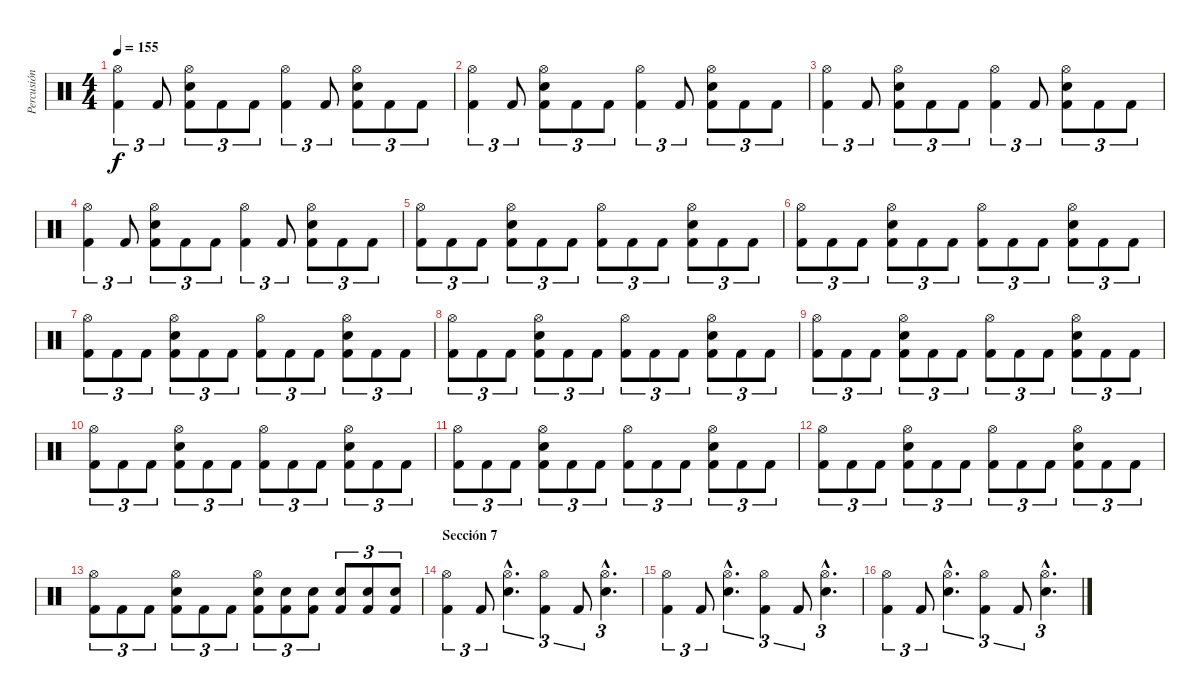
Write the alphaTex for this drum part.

\track ("Percusión" "Percusión") {instrument percussion}
\staff {score}
\articulation defaults
\ts (4 4)
\tempo 155
\clef neutral
\ks c
("Hi-Hat (open)" "Kick (hit) 2").4{tu (3 2) dy f} "Kick (hit) 2".8{tu (3 2)} ("Hi-Hat (open)" "Electric Snare (hit)" "Kick (hit) 2").8{tu (3 2)} "Kick (hit) 2".8{tu (3 2)} "Kick (hit) 2".8{tu (3 2)} ("Hi-Hat (open)" "Kick (hit) 2").4{tu (3 2)} "Kick (hit) 2".8{tu (3 2)} ("Hi-Hat (open)" "Electric Snare (hit)" "Kick (hit) 2").8{tu (3 2)} "Kick (hit) 2".8{tu (3 2)} "Kick (hit) 2".8{tu (3 2)} |
("Hi-Hat (open)" "Kick (hit) 2").4{tu (3 2)} "Kick (hit) 2".8{tu (3 2)} ("Hi-Hat (open)" "Electric Snare (hit)" "Kick (hit) 2").8{tu (3 2)} "Kick (hit) 2".8{tu (3 2)} "Kick (hit) 2".8{tu (3 2)} ("Hi-Hat (open)" "Kick (hit) 2").4{tu (3 2)} "Kick (hit) 2".8{tu (3 2)} ("Hi-Hat (open)" "Electric Snare (hit)" "Kick (hit) 2").8{tu (3 2)} "Kick (hit) 2".8{tu (3 2)} "Kick (hit) 2".8{tu (3 2)} |
("Hi-Hat (open)" "Kick (hit) 2").4{tu (3 2)} "Kick (hit) 2".8{tu (3 2)} ("Hi-Hat (open)" "Electric Snare (hit)" "Kick (hit) 2").8{tu (3 2)} "Kick (hit) 2".8{tu (3 2)} "Kick (hit) 2".8{tu (3 2)} ("Hi-Hat (open)" "Kick (hit) 2").4{tu (3 2)} "Kick (hit) 2".8{tu (3 2)} ("Hi-Hat (open)" "Electric Snare (hit)" "Kick (hit) 2").8{tu (3 2)} "Kick (hit) 2".8{tu (3 2)} "Kick (hit) 2".8{tu (3 2)} |
("Hi-Hat (open)" "Kick (hit) 2").4{tu (3 2)} "Kick (hit) 2".8{tu (3 2)} ("Hi-Hat (open)" "Electric Snare (hit)" "Kick (hit) 2").8{tu (3 2)} "Kick (hit) 2".8{tu (3 2)} "Kick (hit) 2".8{tu (3 2)} ("Hi-Hat (open)" "Kick (hit) 2").4{tu (3 2)} "Kick (hit) 2".8{tu (3 2)} ("Hi-Hat (open)" "Electric Snare (hit)" "Kick (hit) 2").8{tu (3 2)} "Kick (hit) 2".8{tu (3 2)} "Kick (hit) 2".8{tu (3 2)} |
("Hi-Hat (open)" "Kick (hit) 2").8{tu (3 2)} "Kick (hit) 2".8{tu (3 2)} "Kick (hit) 2".8{tu (3 2)} ("Hi-Hat (open)" "Electric Snare (hit)" "Kick (hit) 2").8{tu (3 2)} "Kick (hit) 2".8{tu (3 2)} "Kick (hit) 2".8{tu (3 2)} ("Hi-Hat (open)" "Kick (hit) 2").8{tu (3 2)} "Kick (hit) 2".8{tu (3 2)} "Kick (hit) 2".8{tu (3 2)} ("Hi-Hat (open)" "Electric Snare (hit)" "Kick (hit) 2").8{tu (3 2)} "Kick (hit) 2".8{tu (3 2)} "Kick (hit) 2".8{tu (3 2)} |
("Hi-Hat (open)" "Kick (hit) 2").8{tu (3 2)} "Kick (hit) 2".8{tu (3 2)} "Kick (hit) 2".8{tu (3 2)} ("Hi-Hat (open)" "Electric Snare (hit)" "Kick (hit) 2").8{tu (3 2)} "Kick (hit) 2".8{tu (3 2)} "Kick (hit) 2".8{tu (3 2)} ("Hi-Hat (open)" "Kick (hit) 2").8{tu (3 2)} "Kick (hit) 2".8{tu (3 2)} "Kick (hit) 2".8{tu (3 2)} ("Hi-Hat (open)" "Electric Snare (hit)" "Kick (hit) 2").8{tu (3 2)} "Kick (hit) 2".8{tu (3 2)} "Kick (hit) 2".8{tu (3 2)} |
("Hi-Hat (open)" "Kick (hit) 2").8{tu (3 2)} "Kick (hit) 2".8{tu (3 2)} "Kick (hit) 2".8{tu (3 2)} ("Hi-Hat (open)" "Electric Snare (hit)" "Kick (hit) 2").8{tu (3 2)} "Kick (hit) 2".8{tu (3 2)} "Kick (hit) 2".8{tu (3 2)} ("Hi-Hat (open)" "Kick (hit) 2").8{tu (3 2)} "Kick (hit) 2".8{tu (3 2)} "Kick (hit) 2".8{tu (3 2)} ("Hi-Hat (open)" "Electric Snare (hit)" "Kick (hit) 2").8{tu (3 2)} "Kick (hit) 2".8{tu (3 2)} "Kick (hit) 2".8{tu (3 2)} |
("Hi-Hat (open)" "Kick (hit) 2").8{tu (3 2)} "Kick (hit) 2".8{tu (3 2)} "Kick (hit) 2".8{tu (3 2)} ("Hi-Hat (open)" "Electric Snare (hit)" "Kick (hit) 2").8{tu (3 2)} "Kick (hit) 2".8{tu (3 2)} "Kick (hit) 2".8{tu (3 2)} ("Hi-Hat (open)" "Kick (hit) 2").8{tu (3 2)} "Kick (hit) 2".8{tu (3 2)} "Kick (hit) 2".8{tu (3 2)} ("Hi-Hat (open)" "Electric Snare (hit)" "Kick (hit) 2").8{tu (3 2)} "Kick (hit) 2".8{tu (3 2)} "Kick (hit) 2".8{tu (3 2)} |
("Hi-Hat (open)" "Kick (hit) 2").8{tu (3 2)} "Kick (hit) 2".8{tu (3 2)} "Kick (hit) 2".8{tu (3 2)} ("Hi-Hat (open)" "Electric Snare (hit)" "Kick (hit) 2").8{tu (3 2)} "Kick (hit) 2".8{tu (3 2)} "Kick (hit) 2".8{tu (3 2)} ("Hi-Hat (open)" "Kick (hit) 2").8{tu (3 2)} "Kick (hit) 2".8{tu (3 2)} "Kick (hit) 2".8{tu (3 2)} ("Hi-Hat (open)" "Electric Snare (hit)" "Kick (hit) 2").8{tu (3 2)} "Kick (hit) 2".8{tu (3 2)} "Kick (hit) 2".8{tu (3 2)} |
("Hi-Hat (open)" "Kick (hit) 2").8{tu (3 2)} "Kick (hit) 2".8{tu (3 2)} "Kick (hit) 2".8{tu (3 2)} ("Hi-Hat (open)" "Electric Snare (hit)" "Kick (hit) 2").8{tu (3 2)} "Kick (hit) 2".8{tu (3 2)} "Kick (hit) 2".8{tu (3 2)} ("Hi-Hat (open)" "Kick (hit) 2").8{tu (3 2)} "Kick (hit) 2".8{tu (3 2)} "Kick (hit) 2".8{tu (3 2)} ("Hi-Hat (open)" "Electric Snare (hit)" "Kick (hit) 2").8{tu (3 2)} "Kick (hit) 2".8{tu (3 2)} "Kick (hit) 2".8{tu (3 2)} |
("Hi-Hat (open)" "Kick (hit) 2").8{tu (3 2)} "Kick (hit) 2".8{tu (3 2)} "Kick (hit) 2".8{tu (3 2)} ("Hi-Hat (open)" "Electric Snare (hit)" "Kick (hit) 2").8{tu (3 2)} "Kick (hit) 2".8{tu (3 2)} "Kick (hit) 2".8{tu (3 2)} ("Hi-Hat (open)" "Kick (hit) 2").8{tu (3 2)} "Kick (hit) 2".8{tu (3 2)} "Kick (hit) 2".8{tu (3 2)} ("Hi-Hat (open)" "Electric Snare (hit)" "Kick (hit) 2").8{tu (3 2)} "Kick (hit) 2".8{tu (3 2)} "Kick (hit) 2".8{tu (3 2)} |
("Hi-Hat (open)" "Kick (hit) 2").8{tu (3 2)} "Kick (hit) 2".8{tu (3 2)} "Kick (hit) 2".8{tu (3 2)} ("Hi-Hat (open)" "Electric Snare (hit)" "Kick (hit) 2").8{tu (3 2)} "Kick (hit) 2".8{tu (3 2)} "Kick (hit) 2".8{tu (3 2)} ("Hi-Hat (open)" "Kick (hit) 2").8{tu (3 2)} "Kick (hit) 2".8{tu (3 2)} "Kick (hit) 2".8{tu (3 2)} ("Hi-Hat (open)" "Electric Snare (hit)" "Kick (hit) 2").8{tu (3 2)} "Kick (hit) 2".8{tu (3 2)} "Kick (hit) 2".8{tu (3 2)} |
("Hi-Hat (open)" "Kick (hit) 2").8{tu (3 2)} "Kick (hit) 2".8{tu (3 2)} "Kick (hit) 2".8{tu (3 2)} ("Hi-Hat (open)" "Electric Snare (hit)" "Kick (hit) 2").8{tu (3 2)} "Kick (hit) 2".8{tu (3 2)} "Kick (hit) 2".8{tu (3 2)} ("Hi-Hat (open)" "Electric Snare (hit)" "Kick (hit) 2").8{tu (3 2)} ("Electric Snare (hit)" "Kick (hit) 2").8{tu (3 2)} ("Electric Snare (hit)" "Kick (hit) 2").8{tu (3 2)} ("Electric Snare (hit)" "Kick (hit) 2").8{tu (3 2)} ("Electric Snare (hit)" "Kick (hit) 2").8{tu (3 2)} ("Electric Snare (hit)" "Kick (hit) 2").8{tu (3 2)} |
\section ("" "Sección 7")
("Hi-Hat (open)" "Kick (hit) 2").4{tu (3 2)} "Kick (hit) 2".8{tu (3 2)} ("Hi-Hat (open)"{hac} "Electric Snare (hit)"{hac}).4{d tu (3 2)} ("Hi-Hat (open)" "Kick (hit) 2").4{tu (3 2)} "Kick (hit) 2".8{tu (3 2)} ("Hi-Hat (open)"{hac} "Electric Snare (hit)"{hac}).4{d tu (3 2)} |
("Hi-Hat (open)" "Kick (hit) 2").4{tu (3 2)} "Kick (hit) 2".8{tu (3 2)} ("Hi-Hat (open)"{hac} "Electric Snare (hit)"{hac}).4{d tu (3 2)} ("Hi-Hat (open)" "Kick (hit) 2").4{tu (3 2)} "Kick (hit) 2".8{tu (3 2)} ("Hi-Hat (open)"{hac} "Electric Snare (hit)"{hac}).4{d tu (3 2)} |
("Hi-Hat (open)" "Kick (hit) 2").4{tu (3 2)} "Kick (hit) 2".8{tu (3 2)} ("Hi-Hat (open)"{hac} "Electric Snare (hit)"{hac}).4{d tu (3 2)} ("Hi-Hat (open)" "Kick (hit) 2").4{tu (3 2)} "Kick (hit) 2".8{tu (3 2)} ("Hi-Hat (open)"{hac} "Electric Snare (hit)"{hac}).4{d tu (3 2)}
